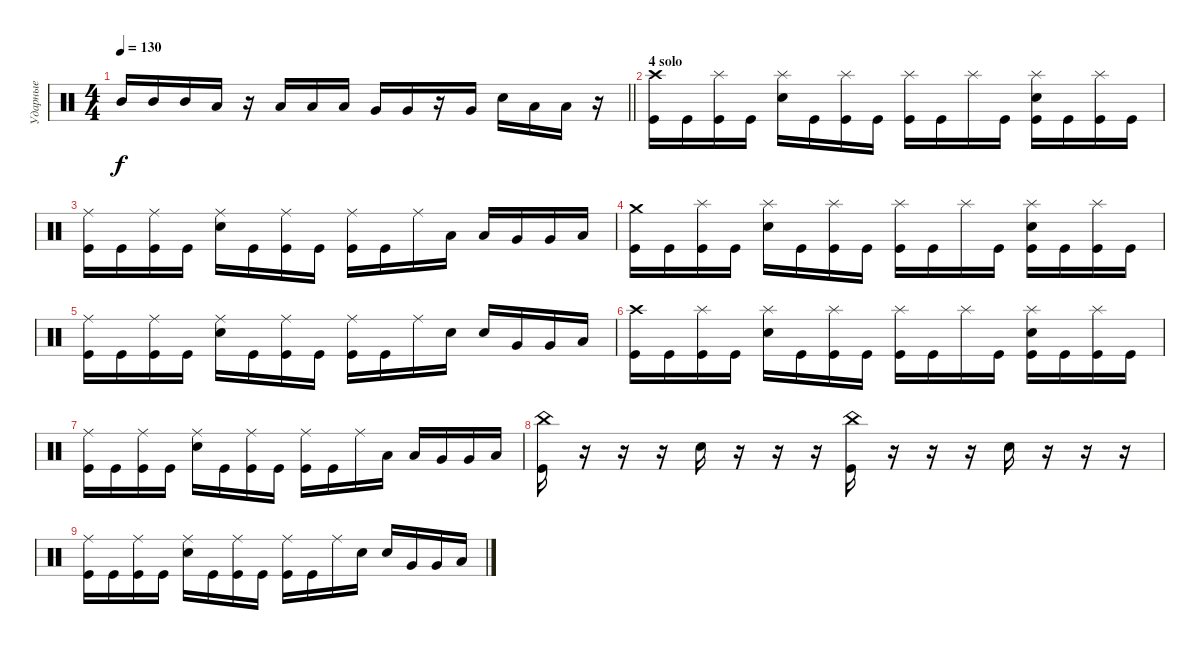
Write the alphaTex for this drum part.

\track ("Ударные" "Ударные") {instrument percussion}
\staff {score}
\articulation defaults
\ts (4 4)
\tempo 130
\clef neutral
\barLineRight lightlight
\ks c "Mid Tom (hit)".16{dy f} "Mid Tom (hit)".16 "Mid Tom (hit)".16 "Low Tom (hit)".16
r.16 "Low Tom (hit)".16 "Low Tom (hit)".16 "Low Tom (hit)".16 "Very Low Tom (hit)".16 "Very Low Tom (hit)".16 r.16 "Very Low Tom (hit)".16 "Electric Snare (hit)".16 "Low Floor Tom (hit)".16 "Low Floor Tom (hit)".16 r.16 |
\section ("" "4 solo")
("Crash high (hit)" "Kick (hit)").16 "Kick (hit)".16 ("Splash (hit)" "Kick (hit)").16 "Kick (hit)".16 ("Splash (hit)" "Electric Snare (hit)").16 "Kick (hit)".16 ("Splash (hit)" "Kick (hit)").16 "Kick (hit)".16 ("Splash (hit)" "Kick (hit)").16 "Kick (hit)".16 "Splash (hit)".16 "Kick (hit)".16 ("Splash (hit)" "Electric Snare (hit)" "Kick (hit)").16 "Kick (hit)".16 ("Splash (hit)" "Kick (hit)").16 "Kick (hit)".16 |
("Ride (middle)" "Kick (hit)").16 "Kick (hit)".16 ("Ride (middle)" "Kick (hit)").16 "Kick (hit)".16 ("Ride (middle)" "Electric Snare (hit)").16 "Kick (hit)".16 ("Ride (middle)" "Kick (hit)").16 "Kick (hit)".16 ("Ride (middle)" "Kick (hit)").16 "Kick (hit)".16 "Ride (middle)".16 "Low Tom (hit)".16 "Low Tom (hit)".16 "Very Low Tom (hit)".16 "Very Low Tom (hit)".16 "Low Tom (hit)".16 |
("Crash medium (hit)" "Kick (hit)").16 "Kick (hit)".16 ("Splash (hit)" "Kick (hit)").16 "Kick (hit)".16 ("Splash (hit)" "Electric Snare (hit)").16 "Kick (hit)".16 ("Splash (hit)" "Kick (hit)").16 "Kick (hit)".16 ("Splash (hit)" "Kick (hit)").16 "Kick (hit)".16 "Splash (hit)".16 "Kick (hit)".16 ("Splash (hit)" "Electric Snare (hit)" "Kick (hit)").16 "Kick (hit)".16 ("Splash (hit)" "Kick (hit)").16 "Kick (hit)".16 |
("Ride (middle)" "Kick (hit)").16 "Kick (hit)".16 ("Ride (middle)" "Kick (hit)").16 "Kick (hit)".16 ("Ride (middle)" "Electric Snare (hit)").16 "Kick (hit)".16 ("Ride (middle)" "Kick (hit)").16 "Kick (hit)".16 ("Ride (middle)" "Kick (hit)").16 "Kick (hit)".16 "Ride (middle)".16 "Electric Snare (hit)".16 "Electric Snare (hit)".16 "Very Low Tom (hit)".16 "Very Low Tom (hit)".16 "Low Tom (hit)".16 |
("Crash high (hit)" "Kick (hit)").16 "Kick (hit)".16 ("Splash (hit)" "Kick (hit)").16 "Kick (hit)".16 ("Splash (hit)" "Electric Snare (hit)").16 "Kick (hit)".16 ("Splash (hit)" "Kick (hit)").16 "Kick (hit)".16 ("Splash (hit)" "Kick (hit)").16 "Kick (hit)".16 "Splash (hit)".16 "Kick (hit)".16 ("Splash (hit)" "Electric Snare (hit)" "Kick (hit)").16 "Kick (hit)".16 ("Splash (hit)" "Kick (hit)").16 "Kick (hit)".16 |
("Ride (middle)" "Kick (hit)").16 "Kick (hit)".16 ("Ride (middle)" "Kick (hit)").16 "Kick (hit)".16 ("Ride (middle)" "Electric Snare (hit)").16 "Kick (hit)".16 ("Ride (middle)" "Kick (hit)").16 "Kick (hit)".16 ("Ride (middle)" "Kick (hit)").16 "Kick (hit)".16 "Ride (middle)".16 "Low Tom (hit)".16 "Low Tom (hit)".16 "Very Low Tom (hit)".16 "Very Low Tom (hit)".16 "Low Tom (hit)".16 |
("China (hit)" "Kick (hit)").16 r.16 r.16 r.16 "Electric Snare (hit)".16 r.16 r.16 r.16 ("China (hit)" "Kick (hit)").16 r.16 r.16 r.16 "Electric Snare (hit)".16 r.16 r.16 r.16 |
("Ride (middle)" "Kick (hit)").16 "Kick (hit)".16 ("Ride (middle)" "Kick (hit)").16 "Kick (hit)".16 ("Ride (middle)" "Electric Snare (hit)").16 "Kick (hit)".16 ("Ride (middle)" "Kick (hit)").16 "Kick (hit)".16 ("Ride (middle)" "Kick (hit)").16 "Kick (hit)".16 "Ride (middle)".16 "Electric Snare (hit)".16 "Electric Snare (hit)".16 "Very Low Tom (hit)".16 "Very Low Tom (hit)".16 "Low Tom (hit)".16
